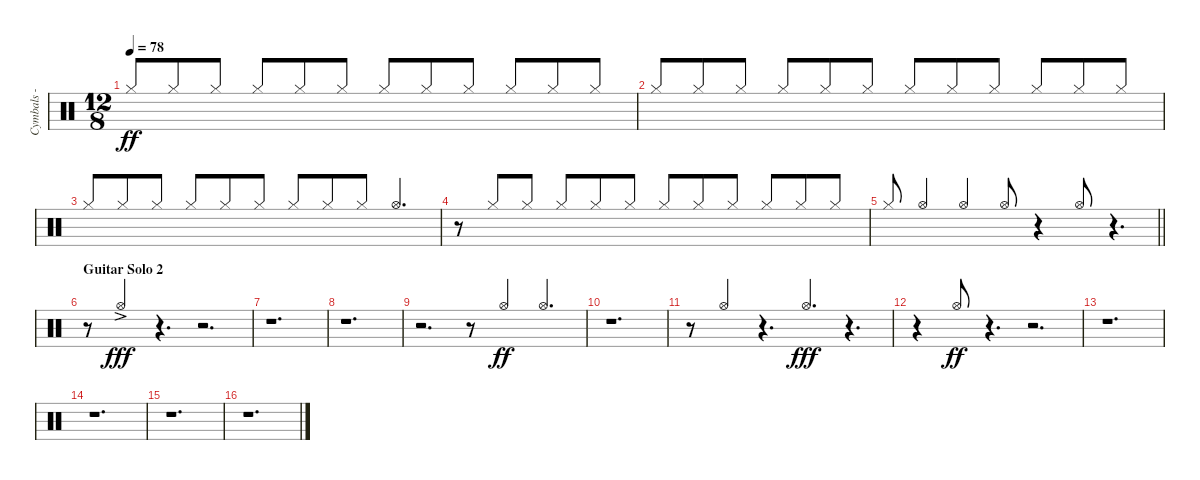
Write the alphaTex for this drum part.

\track ("Cymbals - hi-hat" "Cymbals - ") {instrument percussion}
\staff {score}
\articulation defaults
\ts (12 8)
\tempo 78
\clef neutral
\ks c "Hi-Hat (closed)".8{dy ff beam Up} "Hi-Hat (closed)".8{beam Up} "Hi-Hat (closed)".8{beam Up} "Hi-Hat (closed)".8{beam Up} "Hi-Hat (closed)".8{beam Up} "Hi-Hat (closed)".8{beam Up} "Hi-Hat (closed)".8{beam Up} "Hi-Hat (closed)".8{beam Up} "Hi-Hat (closed)".8{beam Up} "Hi-Hat (closed)".8{beam Up} "Hi-Hat (closed)".8{beam Up} "Hi-Hat (closed)".8{beam Up}
|
"Hi-Hat (closed)".8{beam Up} "Hi-Hat (closed)".8{beam Up} "Hi-Hat (closed)".8{beam Up} "Hi-Hat (closed)".8{beam Up} "Hi-Hat (closed)".8{beam Up} "Hi-Hat (closed)".8{beam Up} "Hi-Hat (closed)".8{beam Up} "Hi-Hat (closed)".8{beam Up} "Hi-Hat (closed)".8{beam Up} "Hi-Hat (closed)".8{beam Up} "Hi-Hat (closed)".8{beam Up} "Hi-Hat (closed)".8{beam Up} |
"Hi-Hat (closed)".8{beam Up} "Hi-Hat (closed)".8{beam Up} "Hi-Hat (closed)".8{beam Up} "Hi-Hat (closed)".8{beam Up} "Hi-Hat (closed)".8{beam Up} "Hi-Hat (closed)".8{beam Up} "Hi-Hat (closed)".8{beam Up} "Hi-Hat (closed)".8{beam Up} "Hi-Hat (closed)".8{beam Up} "Hi-Hat (open)".4{d beam Up} |
r.8 "Hi-Hat (closed)".8{beam Up} "Hi-Hat (closed)".8{beam Up} "Hi-Hat (closed)".8{beam Up} "Hi-Hat (closed)".8{beam Up} "Hi-Hat (closed)".8{beam Up} "Hi-Hat (closed)".8{beam Up} "Hi-Hat (closed)".8{beam Up} "Hi-Hat (closed)".8{beam Up} "Hi-Hat (closed)".8{beam Up} "Hi-Hat (closed)".8{beam Up} "Hi-Hat (closed)".8{beam Up} |
\barLineRight lightlight "Hi-Hat (closed)".8{beam Up} "Hi-Hat (open)".4{beam Up} "Hi-Hat (open)".4{beam Up} "Hi-Hat (open)".8{beam Up}
r.4 "Hi-Hat (open)".8{beam Up} r.4{d} |
\section ("" "Guitar Solo 2")
r.8 "Hi-Hat (open)"{ac}.4{dy fff beam Up} r.4{d} r.2{d} |
r.1{d} |
r.1{d} |
r.2{d} r.8 "Hi-Hat (open)".4{dy ff beam Up} "Hi-Hat (open)".4{d beam Up} |
r.1{d} |
r.8 "Hi-Hat (open)".4{beam Up} r.4{d} "Hi-Hat (open)".4{d dy fff beam Up} r.4{d} |
r.4 "Hi-Hat (open)".8{dy ff beam Up} r.4{d} r.2{d} |
r.1{d} |
r.1{d} |
r.1{d} |
r.1{d}
